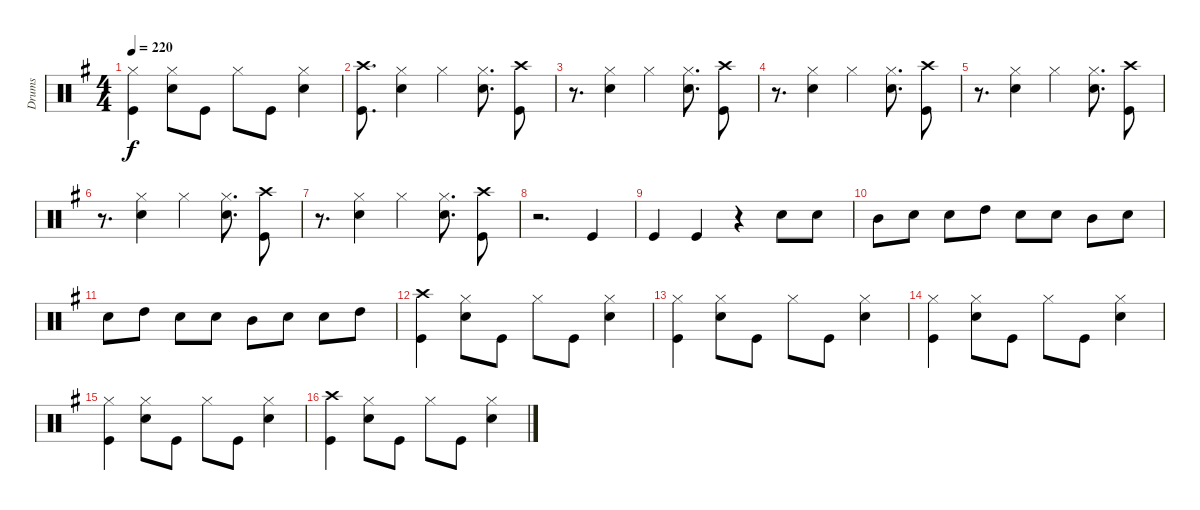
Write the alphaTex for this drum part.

\track ("Drums" "Drums") {instrument percussion}
\staff {score}
\articulation defaults
\ts (4 4)
\tempo 220
\clef neutral
\ks g
("Hi-Hat (closed)" "Kick (hit)").4{dy f} ("Hi-Hat (closed)" "Snare (hit) 2").8 "Kick (hit)".8 "Hi-Hat (closed)".8 "Kick (hit)".8 ("Hi-Hat (closed)" "Snare (hit) 2").4 |
("Crash high (hit)" "Kick (hit)").8{d} ("Hi-Hat (closed)" "Snare (hit) 2").4 "Hi-Hat (closed)".4 ("Hi-Hat (closed)" "Snare (hit) 2").8{d} ("Crash high (hit)" "Kick (hit)").8 |
r.8{d} ("Hi-Hat (closed)" "Snare (hit) 2").4 "Hi-Hat (closed)".4 ("Hi-Hat (closed)" "Snare (hit) 2").8{d} ("Crash high (hit)" "Kick (hit)").8 |
r.8{d} ("Hi-Hat (closed)" "Snare (hit) 2").4 "Hi-Hat (closed)".4 ("Hi-Hat (closed)" "Snare (hit) 2").8{d} ("Crash high (hit)" "Kick (hit)").8 |
r.8{d} ("Hi-Hat (closed)" "Snare (hit) 2").4 "Hi-Hat (closed)".4 ("Hi-Hat (closed)" "Snare (hit) 2").8{d} ("Crash high (hit)" "Kick (hit)").8 |
r.8{d} ("Hi-Hat (closed)" "Snare (hit) 2").4 "Hi-Hat (closed)".4 ("Hi-Hat (closed)" "Snare (hit) 2").8{d} ("Crash high (hit)" "Kick (hit)").8 |
r.8{d} ("Hi-Hat (closed)" "Snare (hit) 2").4 "Hi-Hat (closed)".4 ("Hi-Hat (closed)" "Snare (hit) 2").8{d} ("Crash high (hit)" "Kick (hit)").8 |
r.2{d} "Kick (hit)".4 |
"Kick (hit)".4 "Kick (hit)".4 r.4 "Snare (hit) 2".8 "Snare (hit) 2".8 |
"Mid Tom (hit)".8 "Snare (hit) 2".8 "Snare (hit) 2".8 "High Tom (hit)".8 "Snare (hit) 2".8 "Snare (hit) 2".8 "Mid Tom (hit)".8 "Snare (hit) 2".8 |
"Snare (hit) 2".8 "High Tom (hit)".8 "Snare (hit) 2".8 "Snare (hit) 2".8 "Mid Tom (hit)".8 "Snare (hit) 2".8 "Snare (hit) 2".8 "High Tom (hit)".8 |
("Crash high (hit)" "Kick (hit)").4 ("Hi-Hat (closed)" "Snare (hit) 2").8 "Kick (hit)".8 "Hi-Hat (closed)".8 "Kick (hit)".8 ("Hi-Hat (closed)" "Snare (hit) 2").4 |
("Hi-Hat (closed)" "Kick (hit)").4 ("Hi-Hat (closed)" "Snare (hit) 2").8 "Kick (hit)".8 "Hi-Hat (closed)".8 "Kick (hit)".8 ("Hi-Hat (closed)" "Snare (hit) 2").4 |
("Hi-Hat (closed)" "Kick (hit)").4 ("Hi-Hat (closed)" "Snare (hit) 2").8 "Kick (hit)".8 "Hi-Hat (closed)".8 "Kick (hit)".8 ("Hi-Hat (closed)" "Snare (hit) 2").4 |
("Hi-Hat (closed)" "Kick (hit)").4 ("Hi-Hat (closed)" "Snare (hit) 2").8 "Kick (hit)".8 "Hi-Hat (closed)".8 "Kick (hit)".8 ("Hi-Hat (closed)" "Snare (hit) 2").4 |
("Crash high (hit)" "Kick (hit)").4 ("Hi-Hat (closed)" "Snare (hit) 2").8 "Kick (hit)".8 "Hi-Hat (closed)".8 "Kick (hit)".8 ("Hi-Hat (closed)" "Snare (hit) 2").4
